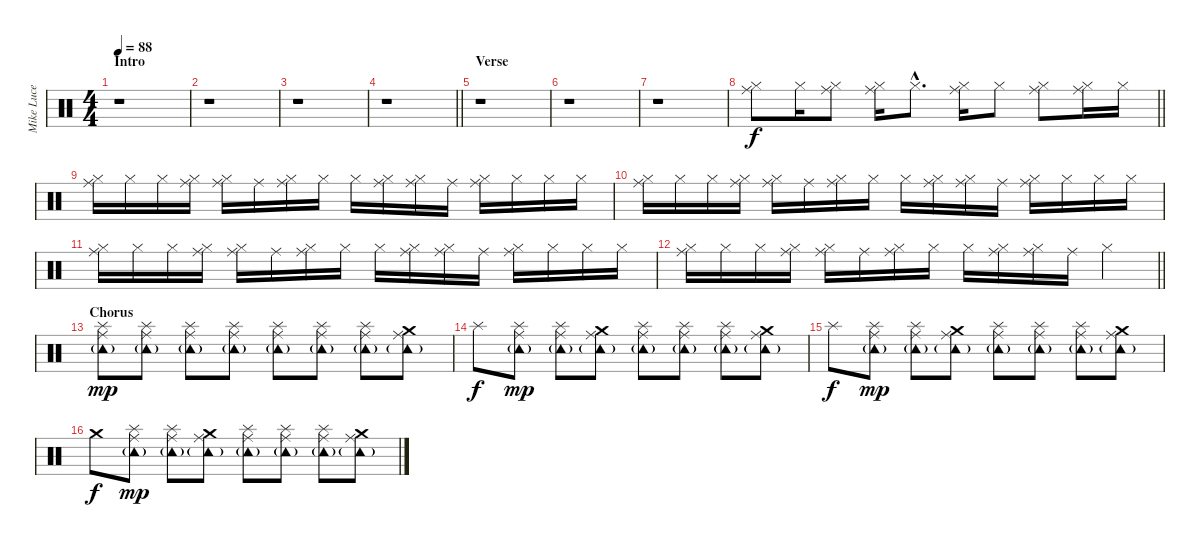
\track ("Mike Luce (Drums)" "Mike Luce ") {instrument percussion}
\staff {score}
\articulation defaults
\ts (4 4)
\section ("" "Intro")
\tempo 88
\clef neutral
\ks c
r.1{dy f} |
r.1 |
r.1 |
\barLineRight lightlight
r.1 |
\section ("" "Verse")
r.1 |
r.1 |
r.1 |
\barLineRight lightlight
("Hi-Hat (closed)" "Ride (middle)").8 "Hi-Hat (closed)".16 ("Hi-Hat (closed)" "Ride (middle)").8 ("Hi-Hat (closed)" "Ride (middle)").16 "Hi-Hat (closed)"{hac}.8{d} ("Hi-Hat (closed)" "Ride (middle)").16 "Hi-Hat (closed)".8 ("Hi-Hat (closed)" "Ride (middle)").8 ("Hi-Hat (closed)" "Ride (middle)").16 "Hi-Hat (closed)".16 |
("Hi-Hat (closed)" "Ride (middle)").16 "Hi-Hat (closed)".16 "Hi-Hat (closed)".16 ("Hi-Hat (closed)" "Ride (middle)").16 ("Hi-Hat (closed)" "Ride (middle)").16 "Ride (middle)".16 ("Hi-Hat (closed)" "Ride (middle)").16 "Hi-Hat (closed)".16 "Hi-Hat (closed)".16 ("Hi-Hat (closed)" "Ride (middle)").16 ("Hi-Hat (closed)" "Ride (middle)").16 "Ride (middle)".16 ("Hi-Hat (closed)" "Ride (middle)").16 "Hi-Hat (closed)".16 "Hi-Hat (closed)".16 "Hi-Hat (closed)".16 |
("Hi-Hat (closed)" "Ride (middle)").16 "Hi-Hat (closed)".16 "Hi-Hat (closed)".16 ("Hi-Hat (closed)" "Ride (middle)").16 ("Hi-Hat (closed)" "Ride (middle)").16 "Ride (middle)".16 ("Hi-Hat (closed)" "Ride (middle)").16 "Hi-Hat (closed)".16 "Hi-Hat (closed)".16 ("Hi-Hat (closed)" "Ride (middle)").16 ("Hi-Hat (closed)" "Ride (middle)").16 "Ride (middle)".16 ("Hi-Hat (closed)" "Ride (middle)").16 "Hi-Hat (closed)".16 "Hi-Hat (closed)".16 "Hi-Hat (closed)".16 |
("Hi-Hat (closed)" "Ride (middle)").16 "Hi-Hat (closed)".16 "Hi-Hat (closed)".16 ("Hi-Hat (closed)" "Ride (middle)").16 ("Hi-Hat (closed)" "Ride (middle)").16 "Ride (middle)".16 ("Hi-Hat (closed)" "Ride (middle)").16 "Hi-Hat (closed)".16 "Hi-Hat (closed)".16 ("Hi-Hat (closed)" "Ride (middle)").16 ("Hi-Hat (closed)" "Ride (middle)").16 "Ride (middle)".16 ("Hi-Hat (closed)" "Ride (middle)").16 "Hi-Hat (closed)".16 "Hi-Hat (closed)".16 "Hi-Hat (closed)".16 |
\barLineRight lightlight
("Hi-Hat (closed)" "Ride (middle)").16 "Hi-Hat (closed)".16 "Hi-Hat (closed)".16 ("Hi-Hat (closed)" "Ride (middle)").16 ("Hi-Hat (closed)" "Ride (middle)").16 "Ride (middle)".16 ("Hi-Hat (closed)" "Ride (middle)").16 "Hi-Hat (closed)".16 "Hi-Hat (closed)".16 ("Hi-Hat (closed)" "Ride (middle)").16 ("Hi-Hat (closed)" "Ride (middle)").16 "Ride (middle)".16 "Hi-Hat (closed)".4 |
\section ("" "Chorus")
("Splash (hit)" "Tambourine (hit)"{g} "Ride (middle)").8{dy mp} ("Splash (hit)" "Tambourine (hit)"{g} "Ride (middle)").8 ("Splash (hit)" "Tambourine (hit)"{g} "Ride (middle)").8 ("Splash (hit)" "Tambourine (hit)"{g} "Ride (middle)").8 ("Splash (hit)" "Tambourine (hit)"{g} "Ride (middle)").8 ("Splash (hit)" "Tambourine (hit)"{g} "Ride (middle)").8 ("Splash (hit)" "Tambourine (hit)"{g} "Ride (middle)").8 ("Crash medium (hit)" "Tambourine (hit)"{g} "Ride (middle)").8 |
"Splash (hit)".8{dy f} ("Splash (hit)" "Tambourine (hit)"{g} "Ride (middle)").8{dy mp} ("Splash (hit)" "Tambourine (hit)"{g} "Ride (middle)").8 ("Crash medium (hit)" "Tambourine (hit)"{g} "Ride (middle)").8 ("Splash (hit)" "Tambourine (hit)"{g} "Ride (middle)").8 ("Splash (hit)" "Tambourine (hit)"{g} "Ride (middle)").8 ("Splash (hit)" "Tambourine (hit)"{g} "Ride (middle)").8 ("Crash medium (hit)" "Tambourine (hit)"{g} "Ride (middle)").8 |
"Splash (hit)".8{dy f} ("Splash (hit)" "Tambourine (hit)"{g} "Ride (middle)").8{dy mp} ("Splash (hit)" "Tambourine (hit)"{g} "Ride (middle)").8 ("Crash medium (hit)" "Tambourine (hit)"{g} "Ride (middle)").8 ("Splash (hit)" "Tambourine (hit)"{g} "Ride (middle)").8 ("Splash (hit)" "Tambourine (hit)"{g} "Ride (middle)").8 ("Splash (hit)" "Tambourine (hit)"{g} "Ride (middle)").8 ("Crash medium (hit)" "Tambourine (hit)"{g} "Ride (middle)").8 |
"Crash medium (hit)".8{dy f} ("Splash (hit)" "Tambourine (hit)"{g} "Ride (middle)").8{dy mp} ("Splash (hit)" "Tambourine (hit)"{g} "Ride (middle)").8 ("Crash medium (hit)" "Tambourine (hit)"{g} "Ride (middle)").8 ("Splash (hit)" "Tambourine (hit)"{g} "Ride (middle)").8 ("Splash (hit)" "Tambourine (hit)"{g} "Ride (middle)").8 ("Splash (hit)" "Tambourine (hit)"{g} "Ride (middle)").8 ("Crash medium (hit)" "Tambourine (hit)"{g} "Ride (middle)").8
